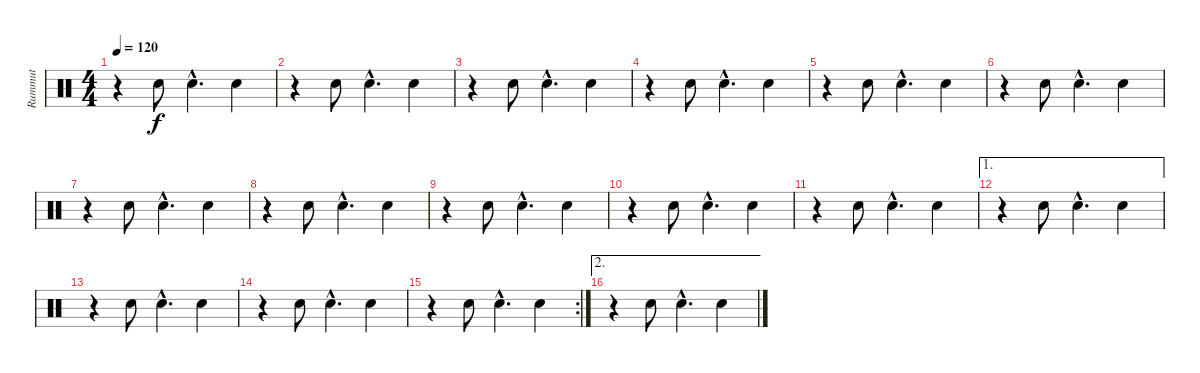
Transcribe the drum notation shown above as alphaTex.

\track ("Rummut" "Rummut") {instrument percussion}
\staff {score}
\articulation defaults
\ts (4 4)
\tempo 120
\clef neutral
\ks c
r.4{dy f} "Snare (hit) 2".8 "Snare (hit) 2"{hac}.4{d} "Snare (hit) 2".4 |
r.4 "Snare (hit) 2".8 "Snare (hit) 2"{hac}.4{d} "Snare (hit) 2".4 |
r.4 "Snare (hit) 2".8 "Snare (hit) 2"{hac}.4{d} "Snare (hit) 2".4 |
r.4 "Snare (hit) 2".8 "Snare (hit) 2"{hac}.4{d} "Snare (hit) 2".4 |
r.4 "Snare (hit) 2".8 "Snare (hit) 2"{hac}.4{d} "Snare (hit) 2".4 |
r.4 "Snare (hit) 2".8 "Snare (hit) 2"{hac}.4{d} "Snare (hit) 2".4 |
r.4 "Snare (hit) 2".8 "Snare (hit) 2"{hac}.4{d} "Snare (hit) 2".4 |
r.4 "Snare (hit) 2".8 "Snare (hit) 2"{hac}.4{d} "Snare (hit) 2".4 |
r.4 "Snare (hit) 2".8 "Snare (hit) 2"{hac}.4{d} "Snare (hit) 2".4 |
r.4 "Snare (hit) 2".8 "Snare (hit) 2"{hac}.4{d} "Snare (hit) 2".4 |
r.4 "Snare (hit) 2".8 "Snare (hit) 2"{hac}.4{d} "Snare (hit) 2".4 |
\ae 1
r.4 "Snare (hit) 2".8 "Snare (hit) 2"{hac}.4{d} "Snare (hit) 2".4 |
r.4 "Snare (hit) 2".8 "Snare (hit) 2"{hac}.4{d} "Snare (hit) 2".4 |
r.4 "Snare (hit) 2".8 "Snare (hit) 2"{hac}.4{d} "Snare (hit) 2".4 |
\rc 2
r.4 "Snare (hit) 2".8 "Snare (hit) 2"{hac}.4{d} "Snare (hit) 2".4 |
\ae 2
r.4 "Snare (hit) 2".8 "Snare (hit) 2"{hac}.4{d} "Snare (hit) 2".4
